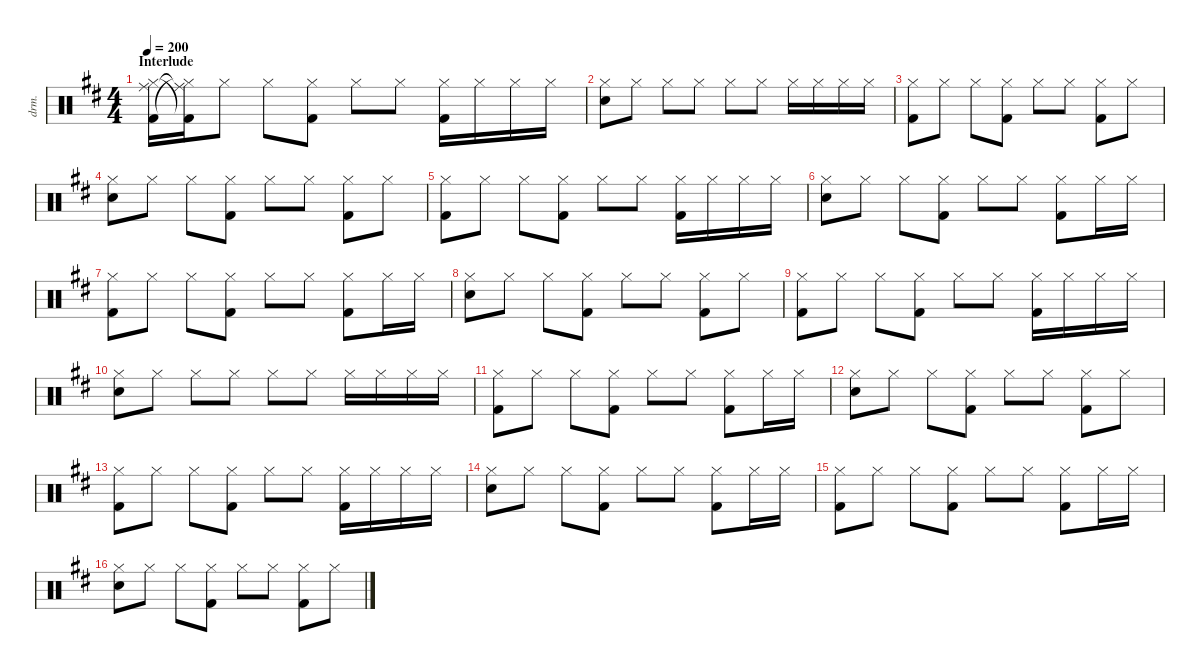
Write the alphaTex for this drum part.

\defaultSystemsLayout 4
\hideDynamics
\bracketExtendMode nobrackets
\otherSystemsTrackNameOrientation horizontal
\track ("Drums" "drm.") {instrument percussion}
\staff {score}
\articulation defaults
\ts (4 4)
\section ("" "Interlude")
\tempo 200
\clef neutral
\ks d
("Hi-Hat (closed)"{acc #} "Kick (hit) 2"{acc forcenatural} "Ride (middle)"{acc #}).16{dy ff beam Down} ("Kick (hit) 2"{t acc forcenatural} "Hi-Hat (closed)"{t acc #} "Ride (middle)"{t acc #}).16{beam Down} "Hi-Hat (closed)"{acc #}.8{beam Down} "Hi-Hat (closed)"{acc #}.8{beam Down} ("Kick (hit) 2"{acc forcenatural} "Hi-Hat (closed)"{acc #}).8{beam Down} "Hi-Hat (closed)"{acc #}.8{beam Down} "Hi-Hat (closed)"{acc #}.8{beam Down} ("Kick (hit) 2"{acc forcenatural} "Hi-Hat (closed)"{acc #}).16{beam Down} "Hi-Hat (closed)"{acc #}.16{beam Down} "Hi-Hat (closed)"{acc #}.16{beam Down} "Hi-Hat (closed)"{acc #}.16{beam Down} |
("Snare (hit) 2"{acc forcenatural} "Hi-Hat (closed)"{acc #}).8{beam Down} "Hi-Hat (closed)"{acc #}.8{beam Down} "Hi-Hat (closed)"{acc #}.8{beam Down} "Hi-Hat (closed)"{acc #}.8{beam Down} "Hi-Hat (closed)"{acc #}.8{beam Down} "Hi-Hat (closed)"{acc #}.8{beam Down} "Hi-Hat (closed)"{acc #}.16{beam Down} "Hi-Hat (closed)"{acc #}.16{beam Down} "Hi-Hat (closed)"{acc #}.16{beam Down} "Hi-Hat (closed)"{acc #}.16{beam Down} |
("Kick (hit) 2"{acc forcenatural} "Hi-Hat (closed)"{acc #}).8{beam Down} "Hi-Hat (closed)"{acc #}.8{beam Down} "Hi-Hat (closed)"{acc #}.8{beam Down} ("Kick (hit) 2"{acc forcenatural} "Hi-Hat (closed)"{acc #}).8{beam Down} "Hi-Hat (closed)"{acc #}.8{beam Down} "Hi-Hat (closed)"{acc #}.8{beam Down} ("Kick (hit) 2"{acc forcenatural} "Hi-Hat (closed)"{acc #}).8{beam Down} "Hi-Hat (closed)"{acc #}.8{beam Down} |
("Snare (hit) 2"{acc forcenatural} "Hi-Hat (closed)"{acc #}).8{beam Down} "Hi-Hat (closed)"{acc #}.8{beam Down} "Hi-Hat (closed)"{acc #}.8{beam Down} ("Kick (hit) 2"{acc forcenatural} "Hi-Hat (closed)"{acc #}).8{beam Down} "Hi-Hat (closed)"{acc #}.8{beam Down} "Hi-Hat (closed)"{acc #}.8{beam Down} ("Kick (hit) 2"{acc forcenatural} "Hi-Hat (closed)"{acc #}).8{beam Down} "Hi-Hat (closed)"{acc #}.8{beam Down} |
("Kick (hit) 2"{acc forcenatural} "Hi-Hat (closed)"{acc #}).8{beam Down} "Hi-Hat (closed)"{acc #}.8{beam Down} "Hi-Hat (closed)"{acc #}.8{beam Down} ("Kick (hit) 2"{acc forcenatural} "Hi-Hat (closed)"{acc #}).8{beam Down} "Hi-Hat (closed)"{acc #}.8{beam Down} "Hi-Hat (closed)"{acc #}.8{beam Down} ("Kick (hit) 2"{acc forcenatural} "Hi-Hat (closed)"{acc #}).16{beam Down} "Hi-Hat (closed)"{acc #}.16{beam Down} "Hi-Hat (closed)"{acc #}.16{beam Down} "Hi-Hat (closed)"{acc #}.16{beam Down} |
("Snare (hit) 2"{acc forcenatural} "Hi-Hat (closed)"{acc #}).8{beam Down} "Hi-Hat (closed)"{acc #}.8{beam Down} "Hi-Hat (closed)"{acc #}.8{beam Down} ("Hi-Hat (closed)"{acc #} "Kick (hit) 2"{acc forcenatural}).8{beam Down} "Hi-Hat (closed)"{acc #}.8{beam Down} "Hi-Hat (closed)"{acc #}.8{beam Down} ("Hi-Hat (closed)"{acc #} "Kick (hit) 2"{acc forcenatural}).8{beam Down} "Hi-Hat (closed)"{acc #}.16{beam Down} "Hi-Hat (closed)"{acc #}.16{beam Down} |
("Kick (hit) 2"{acc forcenatural} "Hi-Hat (closed)"{acc #}).8{beam Down} "Hi-Hat (closed)"{acc #}.8{beam Down} "Hi-Hat (closed)"{acc #}.8{beam Down} ("Kick (hit) 2"{acc forcenatural} "Hi-Hat (closed)"{acc #}).8{beam Down} "Hi-Hat (closed)"{acc #}.8{beam Down} "Hi-Hat (closed)"{acc #}.8{beam Down} ("Hi-Hat (closed)"{acc #} "Kick (hit) 2"{acc forcenatural}).8{beam Down} "Hi-Hat (closed)"{acc #}.16{beam Down} "Hi-Hat (closed)"{acc #}.16{beam Down} |
("Snare (hit) 2"{acc forcenatural} "Hi-Hat (closed)"{acc #}).8{beam Down} "Hi-Hat (closed)"{acc #}.8{beam Down} "Hi-Hat (closed)"{acc #}.8{beam Down} ("Kick (hit) 2"{acc forcenatural} "Hi-Hat (closed)"{acc #}).8{beam Down} "Hi-Hat (closed)"{acc #}.8{beam Down} "Hi-Hat (closed)"{acc #}.8{beam Down} ("Kick (hit) 2"{acc forcenatural} "Hi-Hat (closed)"{acc #}).8{beam Down} "Hi-Hat (closed)"{acc #}.8{beam Down} |
("Kick (hit) 2"{acc forcenatural} "Hi-Hat (closed)"{acc #}).8{beam Down} "Hi-Hat (closed)"{acc #}.8{beam Down} "Hi-Hat (closed)"{acc #}.8{beam Down} ("Kick (hit) 2"{acc forcenatural} "Hi-Hat (closed)"{acc #}).8{beam Down} "Hi-Hat (closed)"{acc #}.8{beam Down} "Hi-Hat (closed)"{acc #}.8{beam Down} ("Kick (hit) 2"{acc forcenatural} "Hi-Hat (closed)"{acc #}).16{beam Down} "Hi-Hat (closed)"{acc #}.16{beam Down} "Hi-Hat (closed)"{acc #}.16{beam Down} "Hi-Hat (closed)"{acc #}.16{beam Down} |
("Snare (hit) 2"{acc forcenatural} "Hi-Hat (closed)"{acc #}).8{beam Down} "Hi-Hat (closed)"{acc #}.8{beam Down} "Hi-Hat (closed)"{acc #}.8{beam Down} "Hi-Hat (closed)"{acc #}.8{beam Down} "Hi-Hat (closed)"{acc #}.8{beam Down} "Hi-Hat (closed)"{acc #}.8{beam Down} "Hi-Hat (closed)"{acc #}.16{beam Down} "Hi-Hat (closed)"{acc #}.16{beam Down} "Hi-Hat (closed)"{acc #}.16{beam Down} "Hi-Hat (closed)"{acc #}.16{beam Down} |
("Kick (hit) 2"{acc forcenatural} "Hi-Hat (closed)"{acc #}).8{beam Down} "Hi-Hat (closed)"{acc #}.8{beam Down} "Hi-Hat (closed)"{acc #}.8{beam Down} ("Kick (hit) 2"{acc forcenatural} "Hi-Hat (closed)"{acc #}).8{beam Down} "Hi-Hat (closed)"{acc #}.8{beam Down} "Hi-Hat (closed)"{acc #}.8{beam Down} ("Hi-Hat (closed)"{acc #} "Kick (hit) 2"{acc forcenatural}).8{beam Down} "Hi-Hat (closed)"{acc #}.16{beam Down} "Hi-Hat (closed)"{acc #}.16{beam Down} |
("Snare (hit) 2"{acc forcenatural} "Hi-Hat (closed)"{acc #}).8{beam Down} "Hi-Hat (closed)"{acc #}.8{beam Down} "Hi-Hat (closed)"{acc #}.8{beam Down} ("Kick (hit) 2"{acc forcenatural} "Hi-Hat (closed)"{acc #}).8{beam Down} "Hi-Hat (closed)"{acc #}.8{beam Down} "Hi-Hat (closed)"{acc #}.8{beam Down} ("Kick (hit) 2"{acc forcenatural} "Hi-Hat (closed)"{acc #}).8{beam Down} "Hi-Hat (closed)"{acc #}.8{beam Down} |
("Kick (hit) 2"{acc forcenatural} "Hi-Hat (closed)"{acc #}).8{beam Down} "Hi-Hat (closed)"{acc #}.8{beam Down} "Hi-Hat (closed)"{acc #}.8{beam Down} ("Kick (hit) 2"{acc forcenatural} "Hi-Hat (closed)"{acc #}).8{beam Down} "Hi-Hat (closed)"{acc #}.8{beam Down} "Hi-Hat (closed)"{acc #}.8{beam Down} ("Kick (hit) 2"{acc forcenatural} "Hi-Hat (closed)"{acc #}).16{beam Down} "Hi-Hat (closed)"{acc #}.16{beam Down} "Hi-Hat (closed)"{acc #}.16{beam Down} "Hi-Hat (closed)"{acc #}.16{beam Down} |
("Snare (hit) 2"{acc forcenatural} "Hi-Hat (closed)"{acc #}).8{beam Down} "Hi-Hat (closed)"{acc #}.8{beam Down} "Hi-Hat (closed)"{acc #}.8{beam Down} ("Hi-Hat (closed)"{acc #} "Kick (hit) 2"{acc forcenatural}).8{beam Down} "Hi-Hat (closed)"{acc #}.8{beam Down} "Hi-Hat (closed)"{acc #}.8{beam Down} ("Hi-Hat (closed)"{acc #} "Kick (hit) 2"{acc forcenatural}).8{beam Down} "Hi-Hat (closed)"{acc #}.16{beam Down} "Hi-Hat (closed)"{acc #}.16{beam Down} |
("Kick (hit) 2"{acc forcenatural} "Hi-Hat (closed)"{acc #}).8{beam Down} "Hi-Hat (closed)"{acc #}.8{beam Down} "Hi-Hat (closed)"{acc #}.8{beam Down} ("Kick (hit) 2"{acc forcenatural} "Hi-Hat (closed)"{acc #}).8{beam Down} "Hi-Hat (closed)"{acc #}.8{beam Down} "Hi-Hat (closed)"{acc #}.8{beam Down} ("Hi-Hat (closed)"{acc #} "Kick (hit) 2"{acc forcenatural}).8{beam Down} "Hi-Hat (closed)"{acc #}.16{beam Down} "Hi-Hat (closed)"{acc #}.16{beam Down} |
("Snare (hit) 2"{acc forcenatural} "Hi-Hat (closed)"{acc #}).8{beam Down} "Hi-Hat (closed)"{acc #}.8{beam Down} "Hi-Hat (closed)"{acc #}.8{beam Down} ("Kick (hit) 2"{acc forcenatural} "Hi-Hat (closed)"{acc #}).8{beam Down} "Hi-Hat (closed)"{acc #}.8{beam Down} "Hi-Hat (closed)"{acc #}.8{beam Down} ("Kick (hit) 2"{acc forcenatural} "Hi-Hat (closed)"{acc #}).8{beam Down} "Hi-Hat (closed)"{acc #}.8{beam Down}
